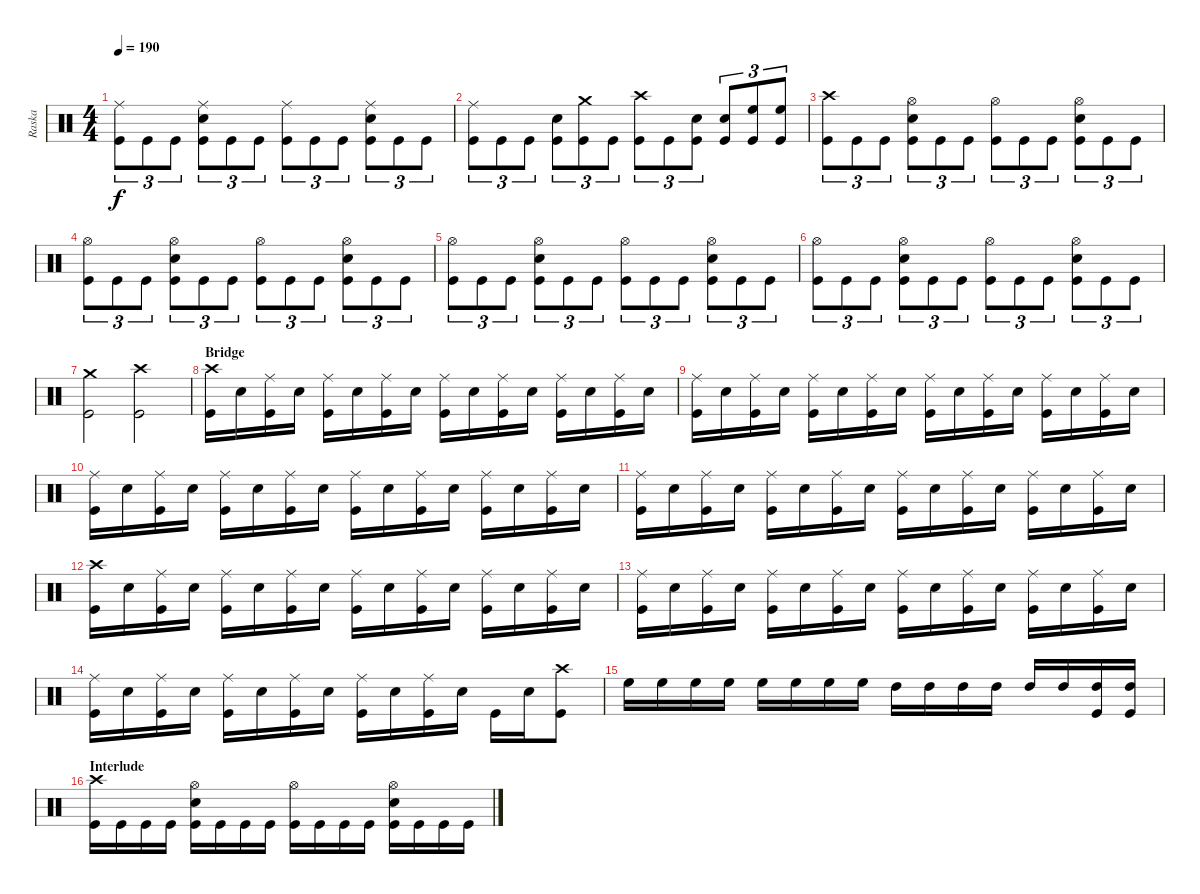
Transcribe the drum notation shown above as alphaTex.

\track ("Raska" "Raska") {instrument percussion}
\staff {score}
\articulation defaults
\ts (4 4)
\tempo 190
\clef neutral
\ks c
("Ride (middle)" "Kick (hit)").8{tu (3 2) dy f} "Kick (hit)".8{tu (3 2)} "Kick (hit)".8{tu (3 2)} ("Ride (middle)" "Electric Snare (hit)" "Kick (hit)").8{tu (3 2)} "Kick (hit)".8{tu (3 2)} "Kick (hit)".8{tu (3 2)} ("Ride (middle)" "Kick (hit)").8{tu (3 2)} "Kick (hit)".8{tu (3 2)} "Kick (hit)".8{tu (3 2)} ("Ride (middle)" "Electric Snare (hit)" "Kick (hit)").8{tu (3 2)} "Kick (hit)".8{tu (3 2)} "Kick (hit)".8{tu (3 2)} |
("Ride (middle)" "Kick (hit)").8{tu (3 2)} "Kick (hit)".8{tu (3 2)} "Kick (hit)".8{tu (3 2)} ("Electric Snare (hit)" "Kick (hit)").8{tu (3 2)} ("Crash medium (hit)" "Kick (hit)").8{tu (3 2)} "Kick (hit)".8{tu (3 2)} ("Crash high (hit)" "Kick (hit)").8{tu (3 2)} "Kick (hit)".8{tu (3 2)} ("Electric Snare (hit)" "Kick (hit)").8{tu (3 2)} ("Electric Snare (hit)" "Kick (hit)").8{tu (3 2)} ("High Floor Tom (hit)" "Kick (hit)").8{tu (3 2)} ("High Floor Tom (hit)" "Kick (hit)").8{tu (3 2)} |
("Crash high (hit)" "Kick (hit)").8{tu (3 2)} "Kick (hit)".8{tu (3 2)} "Kick (hit)".8{tu (3 2)} ("Hi-Hat (open)" "Electric Snare (hit)" "Kick (hit)").8{tu (3 2)} "Kick (hit)".8{tu (3 2)} "Kick (hit)".8{tu (3 2)} ("Hi-Hat (open)" "Kick (hit)").8{tu (3 2)} "Kick (hit)".8{tu (3 2)} "Kick (hit)".8{tu (3 2)} ("Hi-Hat (open)" "Electric Snare (hit)" "Kick (hit)").8{tu (3 2)} "Kick (hit)".8{tu (3 2)} "Kick (hit)".8{tu (3 2)} |
("Hi-Hat (open)" "Kick (hit)").8{tu (3 2)} "Kick (hit)".8{tu (3 2)} "Kick (hit)".8{tu (3 2)} ("Hi-Hat (open)" "Electric Snare (hit)" "Kick (hit)").8{tu (3 2)} "Kick (hit)".8{tu (3 2)} "Kick (hit)".8{tu (3 2)} ("Hi-Hat (open)" "Kick (hit)").8{tu (3 2)} "Kick (hit)".8{tu (3 2)} "Kick (hit)".8{tu (3 2)} ("Hi-Hat (open)" "Electric Snare (hit)" "Kick (hit)").8{tu (3 2)} "Kick (hit)".8{tu (3 2)} "Kick (hit)".8{tu (3 2)} |
("Hi-Hat (open)" "Kick (hit)").8{tu (3 2)} "Kick (hit)".8{tu (3 2)} "Kick (hit)".8{tu (3 2)} ("Hi-Hat (open)" "Electric Snare (hit)" "Kick (hit)").8{tu (3 2)} "Kick (hit)".8{tu (3 2)} "Kick (hit)".8{tu (3 2)} ("Hi-Hat (open)" "Kick (hit)").8{tu (3 2)} "Kick (hit)".8{tu (3 2)} "Kick (hit)".8{tu (3 2)} ("Hi-Hat (open)" "Electric Snare (hit)" "Kick (hit)").8{tu (3 2)} "Kick (hit)".8{tu (3 2)} "Kick (hit)".8{tu (3 2)} |
("Hi-Hat (open)" "Kick (hit)").8{tu (3 2)} "Kick (hit)".8{tu (3 2)} "Kick (hit)".8{tu (3 2)} ("Hi-Hat (open)" "Electric Snare (hit)" "Kick (hit)").8{tu (3 2)} "Kick (hit)".8{tu (3 2)} "Kick (hit)".8{tu (3 2)} ("Hi-Hat (open)" "Kick (hit)").8{tu (3 2)} "Kick (hit)".8{tu (3 2)} "Kick (hit)".8{tu (3 2)} ("Hi-Hat (open)" "Electric Snare (hit)" "Kick (hit)").8{tu (3 2)} "Kick (hit)".8{tu (3 2)} "Kick (hit)".8{tu (3 2)} |
("Crash medium (hit)" "Kick (hit)").2 ("Crash high (hit)" "Kick (hit)").2 |
\section ("" "Bridge")
("Crash high (hit)" "Kick (hit)").16 "Electric Snare (hit)".16 ("Ride (middle)" "Kick (hit)").16 "Electric Snare (hit)".16 ("Ride (middle)" "Kick (hit)").16 "Electric Snare (hit)".16 ("Ride (middle)" "Kick (hit)").16 "Electric Snare (hit)".16 ("Ride (middle)" "Kick (hit)").16 "Electric Snare (hit)".16 ("Ride (middle)" "Kick (hit)").16 "Electric Snare (hit)".16 ("Ride (middle)" "Kick (hit)").16 "Electric Snare (hit)".16 ("Ride (middle)" "Kick (hit)").16 "Electric Snare (hit)".16 |
("Ride (middle)" "Kick (hit)").16 "Electric Snare (hit)".16 ("Ride (middle)" "Kick (hit)").16 "Electric Snare (hit)".16 ("Ride (middle)" "Kick (hit)").16 "Electric Snare (hit)".16 ("Ride (middle)" "Kick (hit)").16 "Electric Snare (hit)".16 ("Ride (middle)" "Kick (hit)").16 "Electric Snare (hit)".16 ("Ride (middle)" "Kick (hit)").16 "Electric Snare (hit)".16 ("Ride (middle)" "Kick (hit)").16 "Electric Snare (hit)".16 ("Ride (middle)" "Kick (hit)").16 "Electric Snare (hit)".16 |
("Ride (middle)" "Kick (hit)").16 "Electric Snare (hit)".16 ("Ride (middle)" "Kick (hit)").16 "Electric Snare (hit)".16 ("Ride (middle)" "Kick (hit)").16 "Electric Snare (hit)".16 ("Ride (middle)" "Kick (hit)").16 "Electric Snare (hit)".16 ("Ride (middle)" "Kick (hit)").16 "Electric Snare (hit)".16 ("Ride (middle)" "Kick (hit)").16 "Electric Snare (hit)".16 ("Ride (middle)" "Kick (hit)").16 "Electric Snare (hit)".16 ("Ride (middle)" "Kick (hit)").16 "Electric Snare (hit)".16 |
("Ride (middle)" "Kick (hit)").16 "Electric Snare (hit)".16 ("Ride (middle)" "Kick (hit)").16 "Electric Snare (hit)".16 ("Ride (middle)" "Kick (hit)").16 "Electric Snare (hit)".16 ("Ride (middle)" "Kick (hit)").16 "Electric Snare (hit)".16 ("Ride (middle)" "Kick (hit)").16 "Electric Snare (hit)".16 ("Ride (middle)" "Kick (hit)").16 "Electric Snare (hit)".16 ("Ride (middle)" "Kick (hit)").16 "Electric Snare (hit)".16 ("Ride (middle)" "Kick (hit)").16 "Electric Snare (hit)".16 |
("Crash high (hit)" "Kick (hit)").16 "Electric Snare (hit)".16 ("Ride (middle)" "Kick (hit)").16 "Electric Snare (hit)".16 ("Ride (middle)" "Kick (hit)").16 "Electric Snare (hit)".16 ("Ride (middle)" "Kick (hit)").16 "Electric Snare (hit)".16 ("Ride (middle)" "Kick (hit)").16 "Electric Snare (hit)".16 ("Ride (middle)" "Kick (hit)").16 "Electric Snare (hit)".16 ("Ride (middle)" "Kick (hit)").16 "Electric Snare (hit)".16 ("Ride (middle)" "Kick (hit)").16 "Electric Snare (hit)".16 |
("Ride (middle)" "Kick (hit)").16 "Electric Snare (hit)".16 ("Ride (middle)" "Kick (hit)").16 "Electric Snare (hit)".16 ("Ride (middle)" "Kick (hit)").16 "Electric Snare (hit)".16 ("Ride (middle)" "Kick (hit)").16 "Electric Snare (hit)".16 ("Ride (middle)" "Kick (hit)").16 "Electric Snare (hit)".16 ("Ride (middle)" "Kick (hit)").16 "Electric Snare (hit)".16 ("Ride (middle)" "Kick (hit)").16 "Electric Snare (hit)".16 ("Ride (middle)" "Kick (hit)").16 "Electric Snare (hit)".16 |
("Ride (middle)" "Kick (hit)").16 "Electric Snare (hit)".16 ("Ride (middle)" "Kick (hit)").16 "Electric Snare (hit)".16 ("Ride (middle)" "Kick (hit)").16 "Electric Snare (hit)".16 ("Ride (middle)" "Kick (hit)").16 "Electric Snare (hit)".16 ("Ride (middle)" "Kick (hit)").16 "Electric Snare (hit)".16 ("Ride (middle)" "Kick (hit)").16 "Electric Snare (hit)".16 "Kick (hit)".16 "Electric Snare (hit)".16 ("Crash high (hit)" "Kick (hit)").8 |
"High Floor Tom (hit)".16 "High Floor Tom (hit)".16 "High Floor Tom (hit)".16 "High Floor Tom (hit)".16 "High Floor Tom (hit)".16 "High Floor Tom (hit)".16 "High Floor Tom (hit)".16 "High Floor Tom (hit)".16 "High Tom (hit)".16 "High Tom (hit)".16 "High Tom (hit)".16 "High Tom (hit)".16 "High Tom (hit)".16 "High Tom (hit)".16 ("High Tom (hit)" "Kick (hit)").16 ("High Tom (hit)" "Kick (hit)").16 |
\section ("" "Interlude")
("Crash high (hit)" "Kick (hit)").16 "Kick (hit)".16 "Kick (hit)".16 "Kick (hit)".16 ("Hi-Hat (open)" "Electric Snare (hit)" "Kick (hit)").16 "Kick (hit)".16 "Kick (hit)".16 "Kick (hit)".16 ("Hi-Hat (open)" "Kick (hit)").16 "Kick (hit)".16 "Kick (hit)".16 "Kick (hit)".16 ("Hi-Hat (open)" "Electric Snare (hit)" "Kick (hit)").16 "Kick (hit)".16 "Kick (hit)".16 "Kick (hit)".16
